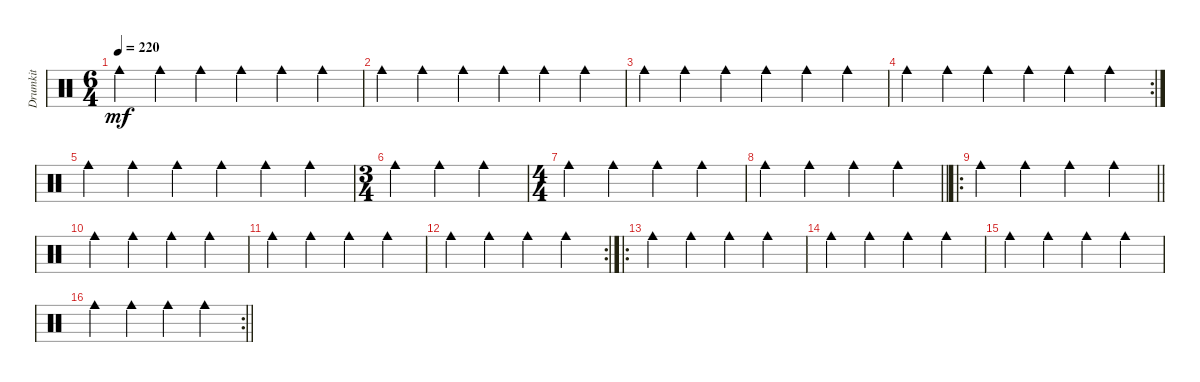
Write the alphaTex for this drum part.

\track ("Drumkit" "Drumkit") {instrument percussion}
\staff {score}
\articulation defaults
\ts (6 4)
\tempo 220
\clef neutral
\ks c "Cowbell medium (hit)".4{dy mf} "Cowbell medium (hit)".4 "Cowbell medium (hit)".4 "Cowbell medium (hit)".4 "Cowbell medium (hit)".4 "Cowbell medium (hit)".4
|
"Cowbell medium (hit)".4 "Cowbell medium (hit)".4 "Cowbell medium (hit)".4 "Cowbell medium (hit)".4 "Cowbell medium (hit)".4 "Cowbell medium (hit)".4 |
"Cowbell medium (hit)".4 "Cowbell medium (hit)".4 "Cowbell medium (hit)".4 "Cowbell medium (hit)".4 "Cowbell medium (hit)".4 "Cowbell medium (hit)".4 |
\rc 2 "Cowbell medium (hit)".4 "Cowbell medium (hit)".4 "Cowbell medium (hit)".4 "Cowbell medium (hit)".4 "Cowbell medium (hit)".4 "Cowbell medium (hit)".4
|
"Cowbell medium (hit)".4 "Cowbell medium (hit)".4 "Cowbell medium (hit)".4 "Cowbell medium (hit)".4 "Cowbell medium (hit)".4 "Cowbell medium (hit)".4 |
\ts (3 4)
"Cowbell medium (hit)".4 "Cowbell medium (hit)".4 "Cowbell medium (hit)".4 |
\ts (4 4)
"Cowbell medium (hit)".4 "Cowbell medium (hit)".4 "Cowbell medium (hit)".4 "Cowbell medium (hit)".4 |
\barLineRight lightlight "Cowbell medium (hit)".4 "Cowbell medium (hit)".4 "Cowbell medium (hit)".4 "Cowbell medium (hit)".4
|
\ro
\section ("" "")
\barLineRight lightlight "Cowbell medium (hit)".4 "Cowbell medium (hit)".4 "Cowbell medium (hit)".4 "Cowbell medium (hit)".4
|
\section ("" "")
"Cowbell medium (hit)".4 "Cowbell medium (hit)".4 "Cowbell medium (hit)".4 "Cowbell medium (hit)".4 |
"Cowbell medium (hit)".4 "Cowbell medium (hit)".4 "Cowbell medium (hit)".4 "Cowbell medium (hit)".4 |
\rc 2 "Cowbell medium (hit)".4 "Cowbell medium (hit)".4 "Cowbell medium (hit)".4 "Cowbell medium (hit)".4
|
\ro "Cowbell medium (hit)".4 "Cowbell medium (hit)".4 "Cowbell medium (hit)".4 "Cowbell medium (hit)".4
|
"Cowbell medium (hit)".4 "Cowbell medium (hit)".4 "Cowbell medium (hit)".4 "Cowbell medium (hit)".4 |
"Cowbell medium (hit)".4 "Cowbell medium (hit)".4 "Cowbell medium (hit)".4 "Cowbell medium (hit)".4 |
\rc 2
\barLineRight lightlight "Cowbell medium (hit)".4 "Cowbell medium (hit)".4 "Cowbell medium (hit)".4 "Cowbell medium (hit)".4
